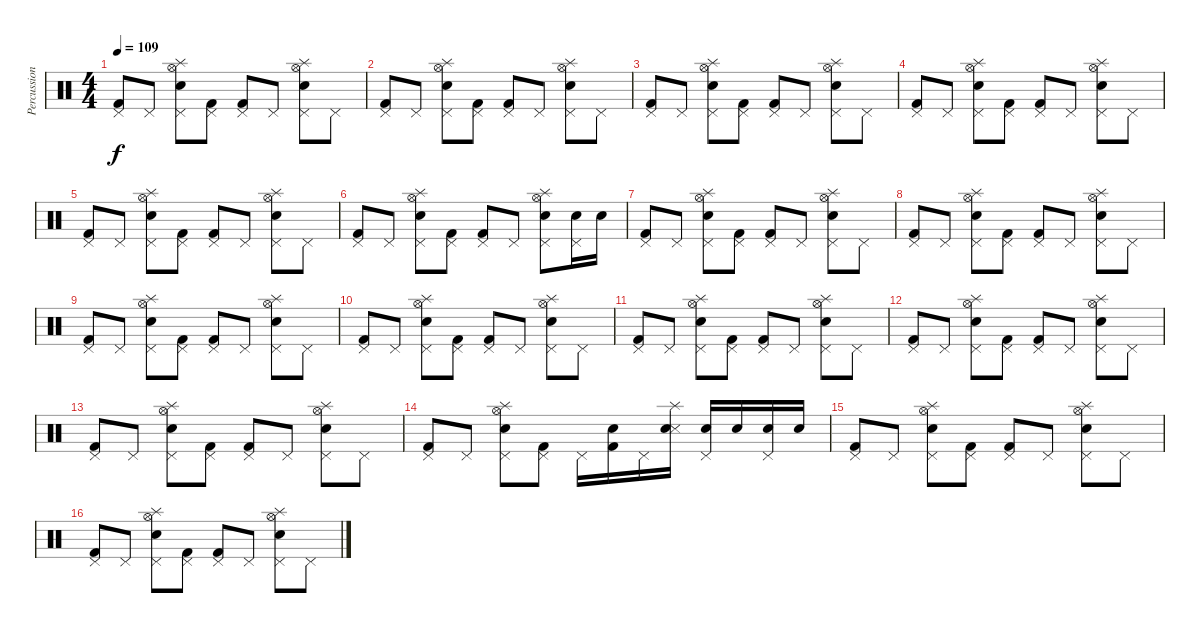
\track ("Percussion" "Percussion") {instrument percussion}
\staff {score}
\articulation defaults
\ts (4 4)
\tempo 109
\clef neutral
\ks c
("Pedal Hi-Hat (hit)" "Kick (hit) 2").8{dy f} "Pedal Hi-Hat (hit)".8 ("Pedal Hi-Hat (hit)" "Splash (hit)" "Electric Snare (hit)" "Hi-Hat (open)").8 ("Pedal Hi-Hat (hit)" "Kick (hit) 2").8 ("Pedal Hi-Hat (hit)" "Kick (hit) 2").8 "Pedal Hi-Hat (hit)".8 ("Pedal Hi-Hat (hit)" "Splash (hit)" "Electric Snare (hit)" "Hi-Hat (open)").8 "Pedal Hi-Hat (hit)".8 |
("Pedal Hi-Hat (hit)" "Kick (hit) 2").8 "Pedal Hi-Hat (hit)".8 ("Pedal Hi-Hat (hit)" "Splash (hit)" "Electric Snare (hit)" "Hi-Hat (open)").8 ("Pedal Hi-Hat (hit)" "Kick (hit) 2").8 ("Pedal Hi-Hat (hit)" "Kick (hit) 2").8 "Pedal Hi-Hat (hit)".8 ("Pedal Hi-Hat (hit)" "Splash (hit)" "Electric Snare (hit)" "Hi-Hat (open)").8 "Pedal Hi-Hat (hit)".8 |
("Pedal Hi-Hat (hit)" "Kick (hit) 2").8 "Pedal Hi-Hat (hit)".8 ("Pedal Hi-Hat (hit)" "Splash (hit)" "Electric Snare (hit)" "Hi-Hat (open)").8 ("Pedal Hi-Hat (hit)" "Kick (hit) 2").8 ("Pedal Hi-Hat (hit)" "Kick (hit) 2").8 "Pedal Hi-Hat (hit)".8 ("Pedal Hi-Hat (hit)" "Splash (hit)" "Electric Snare (hit)" "Hi-Hat (open)").8 "Pedal Hi-Hat (hit)".8 |
("Pedal Hi-Hat (hit)" "Kick (hit) 2").8 "Pedal Hi-Hat (hit)".8 ("Pedal Hi-Hat (hit)" "Splash (hit)" "Electric Snare (hit)" "Hi-Hat (open)").8 ("Pedal Hi-Hat (hit)" "Kick (hit) 2").8 ("Pedal Hi-Hat (hit)" "Kick (hit) 2").8 "Pedal Hi-Hat (hit)".8 ("Pedal Hi-Hat (hit)" "Splash (hit)" "Electric Snare (hit)" "Hi-Hat (open)").8 "Pedal Hi-Hat (hit)".8 |
("Pedal Hi-Hat (hit)" "Kick (hit) 2").8 "Pedal Hi-Hat (hit)".8 ("Pedal Hi-Hat (hit)" "Splash (hit)" "Electric Snare (hit)" "Hi-Hat (open)").8 ("Pedal Hi-Hat (hit)" "Kick (hit) 2").8 ("Pedal Hi-Hat (hit)" "Kick (hit) 2").8 "Pedal Hi-Hat (hit)".8 ("Pedal Hi-Hat (hit)" "Splash (hit)" "Electric Snare (hit)" "Hi-Hat (open)").8 "Pedal Hi-Hat (hit)".8 |
("Pedal Hi-Hat (hit)" "Kick (hit) 2").8 "Pedal Hi-Hat (hit)".8 ("Pedal Hi-Hat (hit)" "Splash (hit)" "Electric Snare (hit)" "Hi-Hat (open)").8 ("Pedal Hi-Hat (hit)" "Kick (hit) 2").8 ("Pedal Hi-Hat (hit)" "Kick (hit) 2").8 "Pedal Hi-Hat (hit)".8 ("Pedal Hi-Hat (hit)" "Splash (hit)" "Electric Snare (hit)" "Hi-Hat (open)").8 ("Pedal Hi-Hat (hit)" "Electric Snare (hit)").16 "Electric Snare (hit)".16 |
("Pedal Hi-Hat (hit)" "Kick (hit) 2").8{volume 7} "Pedal Hi-Hat (hit)".8 ("Pedal Hi-Hat (hit)" "Splash (hit)" "Electric Snare (hit)" "Hi-Hat (open)").8 ("Pedal Hi-Hat (hit)" "Kick (hit) 2").8 ("Pedal Hi-Hat (hit)" "Kick (hit) 2").8 "Pedal Hi-Hat (hit)".8 ("Pedal Hi-Hat (hit)" "Splash (hit)" "Electric Snare (hit)" "Hi-Hat (open)").8 "Pedal Hi-Hat (hit)".8 |
("Pedal Hi-Hat (hit)" "Kick (hit) 2").8 "Pedal Hi-Hat (hit)".8 ("Pedal Hi-Hat (hit)" "Splash (hit)" "Electric Snare (hit)" "Hi-Hat (open)").8 ("Pedal Hi-Hat (hit)" "Kick (hit) 2").8 ("Pedal Hi-Hat (hit)" "Kick (hit) 2").8 "Pedal Hi-Hat (hit)".8 ("Pedal Hi-Hat (hit)" "Splash (hit)" "Electric Snare (hit)" "Hi-Hat (open)").8 "Pedal Hi-Hat (hit)".8 |
("Pedal Hi-Hat (hit)" "Kick (hit) 2").8 "Pedal Hi-Hat (hit)".8 ("Pedal Hi-Hat (hit)" "Splash (hit)" "Electric Snare (hit)" "Hi-Hat (open)").8 ("Pedal Hi-Hat (hit)" "Kick (hit) 2").8 ("Pedal Hi-Hat (hit)" "Kick (hit) 2").8 "Pedal Hi-Hat (hit)".8 ("Pedal Hi-Hat (hit)" "Splash (hit)" "Electric Snare (hit)" "Hi-Hat (open)").8 "Pedal Hi-Hat (hit)".8 |
("Pedal Hi-Hat (hit)" "Kick (hit) 2").8 "Pedal Hi-Hat (hit)".8 ("Pedal Hi-Hat (hit)" "Splash (hit)" "Electric Snare (hit)" "Hi-Hat (open)").8 ("Pedal Hi-Hat (hit)" "Kick (hit) 2").8 ("Pedal Hi-Hat (hit)" "Kick (hit) 2").8 "Pedal Hi-Hat (hit)".8 ("Pedal Hi-Hat (hit)" "Splash (hit)" "Electric Snare (hit)" "Hi-Hat (open)").8 "Pedal Hi-Hat (hit)".8 |
("Pedal Hi-Hat (hit)" "Kick (hit) 2").8{volume 2} "Pedal Hi-Hat (hit)".8 ("Pedal Hi-Hat (hit)" "Splash (hit)" "Electric Snare (hit)" "Hi-Hat (open)").8 ("Pedal Hi-Hat (hit)" "Kick (hit) 2").8 ("Pedal Hi-Hat (hit)" "Kick (hit) 2").8 "Pedal Hi-Hat (hit)".8 ("Pedal Hi-Hat (hit)" "Splash (hit)" "Electric Snare (hit)" "Hi-Hat (open)").8 "Pedal Hi-Hat (hit)".8 |
("Pedal Hi-Hat (hit)" "Kick (hit) 2").8 "Pedal Hi-Hat (hit)".8 ("Pedal Hi-Hat (hit)" "Splash (hit)" "Electric Snare (hit)" "Hi-Hat (open)").8 ("Pedal Hi-Hat (hit)" "Kick (hit) 2").8 ("Pedal Hi-Hat (hit)" "Kick (hit) 2").8 "Pedal Hi-Hat (hit)".8 ("Pedal Hi-Hat (hit)" "Splash (hit)" "Electric Snare (hit)" "Hi-Hat (open)").8 "Pedal Hi-Hat (hit)".8 |
("Pedal Hi-Hat (hit)" "Kick (hit) 2").8 "Pedal Hi-Hat (hit)".8 ("Pedal Hi-Hat (hit)" "Splash (hit)" "Electric Snare (hit)" "Hi-Hat (open)").8 ("Pedal Hi-Hat (hit)" "Kick (hit) 2").8 ("Pedal Hi-Hat (hit)" "Kick (hit) 2").8 "Pedal Hi-Hat (hit)".8 ("Pedal Hi-Hat (hit)" "Splash (hit)" "Electric Snare (hit)" "Hi-Hat (open)").8 "Pedal Hi-Hat (hit)".8 |
("Pedal Hi-Hat (hit)" "Kick (hit) 2").8 "Pedal Hi-Hat (hit)".8 ("Pedal Hi-Hat (hit)" "Splash (hit)" "Electric Snare (hit)" "Hi-Hat (open)").8 ("Pedal Hi-Hat (hit)" "Kick (hit) 2").8 "Pedal Hi-Hat (hit)".16 ("Electric Snare (hit)" "Kick (hit) 2").16 "Pedal Hi-Hat (hit)".16 ("Splash (hit)" "Snare (side stick) 3" "Electric Snare (hit)").16 ("Pedal Hi-Hat (hit)" "Electric Snare (hit)").16 "Electric Snare (hit)".16 ("Pedal Hi-Hat (hit)" "Electric Snare (hit)").16 "Electric Snare (hit)".16 |
("Pedal Hi-Hat (hit)" "Kick (hit) 2").8{volume 0} "Pedal Hi-Hat (hit)".8 ("Pedal Hi-Hat (hit)" "Splash (hit)" "Electric Snare (hit)" "Hi-Hat (open)").8 ("Pedal Hi-Hat (hit)" "Kick (hit) 2").8 ("Pedal Hi-Hat (hit)" "Kick (hit) 2").8 "Pedal Hi-Hat (hit)".8 ("Pedal Hi-Hat (hit)" "Splash (hit)" "Electric Snare (hit)" "Hi-Hat (open)").8 "Pedal Hi-Hat (hit)".8 |
("Pedal Hi-Hat (hit)" "Kick (hit) 2").8 "Pedal Hi-Hat (hit)".8 ("Pedal Hi-Hat (hit)" "Splash (hit)" "Electric Snare (hit)" "Hi-Hat (open)").8 ("Pedal Hi-Hat (hit)" "Kick (hit) 2").8 ("Pedal Hi-Hat (hit)" "Kick (hit) 2").8 "Pedal Hi-Hat (hit)".8 ("Pedal Hi-Hat (hit)" "Splash (hit)" "Electric Snare (hit)" "Hi-Hat (open)").8 "Pedal Hi-Hat (hit)".8
